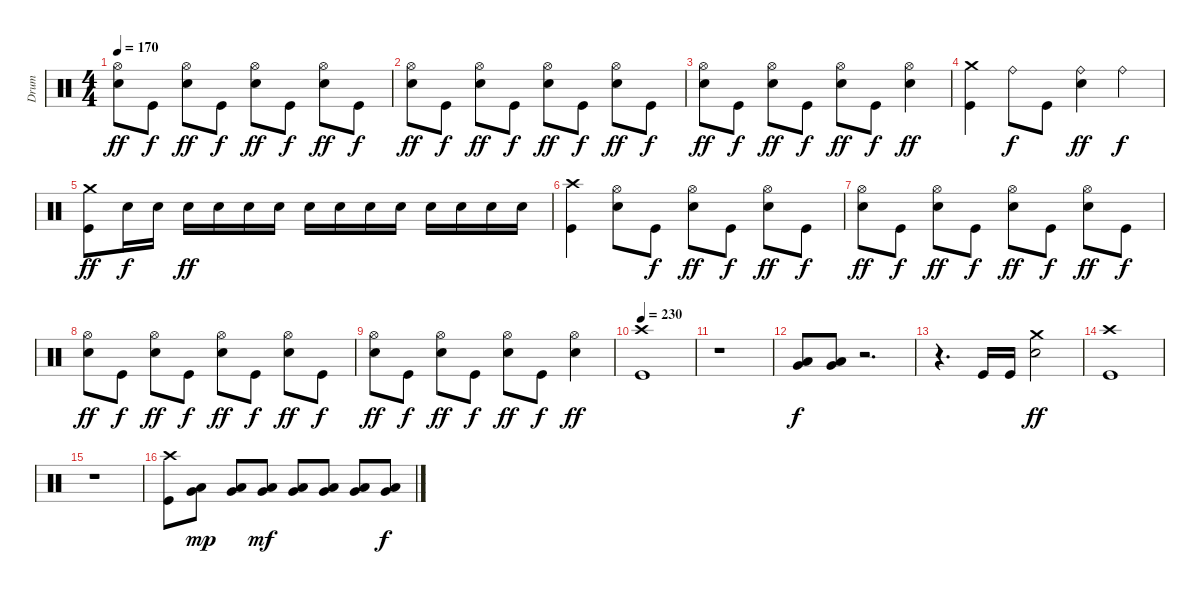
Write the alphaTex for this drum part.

\track ("Drum" "Drum") {instrument percussion}
\staff {score}
\articulation defaults
\ts (4 4)
\tempo 170
\clef neutral
\ks c
("Electric Snare (hit)" "Hi-Hat (open)").8{dy ff} "Kick (hit)".8{dy f} ("Electric Snare (hit)" "Hi-Hat (open)").8{dy ff} "Kick (hit)".8{dy f} ("Electric Snare (hit)" "Hi-Hat (open)").8{dy ff} "Kick (hit)".8{dy f} ("Electric Snare (hit)" "Hi-Hat (open)").8{dy ff} "Kick (hit)".8{dy f} |
("Electric Snare (hit)" "Hi-Hat (open)").8{dy ff} "Kick (hit)".8{dy f} ("Electric Snare (hit)" "Hi-Hat (open)").8{dy ff} "Kick (hit)".8{dy f} ("Electric Snare (hit)" "Hi-Hat (open)").8{dy ff} "Kick (hit)".8{dy f} ("Electric Snare (hit)" "Hi-Hat (open)").8{dy ff} "Kick (hit)".8{dy f} |
("Electric Snare (hit)" "Hi-Hat (open)").8{dy ff} "Kick (hit)".8{dy f} ("Electric Snare (hit)" "Hi-Hat (open)").8{dy ff} "Kick (hit)".8{dy f} ("Electric Snare (hit)" "Hi-Hat (open)").8{dy ff} "Kick (hit)".8{dy f} ("Electric Snare (hit)" "Hi-Hat (open)").4{dy ff} |
("Kick (hit)" "Crash medium (hit)").4 "Ride (bell)".8{dy f} "Kick (hit)".8 ("Electric Snare (hit)" "Ride (bell)").4{dy ff} "Ride (bell)".4{dy f} |
("Kick (hit)" "Crash medium (hit)").8{dy ff} "Electric Snare (hit)".16{dy f} "Electric Snare (hit)".16 "Electric Snare (hit)".16{dy ff} "Electric Snare (hit)".16 "Electric Snare (hit)".16 "Electric Snare (hit)".16 "Electric Snare (hit)".16 "Electric Snare (hit)".16 "Electric Snare (hit)".16 "Electric Snare (hit)".16 "Electric Snare (hit)".16 "Electric Snare (hit)".16 "Electric Snare (hit)".16 "Electric Snare (hit)".16 |
("Kick (hit)" "Crash high (hit)").4 ("Electric Snare (hit)" "Hi-Hat (open)").8 "Kick (hit)".8{dy f} ("Electric Snare (hit)" "Hi-Hat (open)").8{dy ff} "Kick (hit)".8{dy f} ("Electric Snare (hit)" "Hi-Hat (open)").8{dy ff} "Kick (hit)".8{dy f} |
("Electric Snare (hit)" "Hi-Hat (open)").8{dy ff} "Kick (hit)".8{dy f} ("Electric Snare (hit)" "Hi-Hat (open)").8{dy ff} "Kick (hit)".8{dy f} ("Electric Snare (hit)" "Hi-Hat (open)").8{dy ff} "Kick (hit)".8{dy f} ("Electric Snare (hit)" "Hi-Hat (open)").8{dy ff} "Kick (hit)".8{dy f} |
("Electric Snare (hit)" "Hi-Hat (open)").8{dy ff} "Kick (hit)".8{dy f} ("Electric Snare (hit)" "Hi-Hat (open)").8{dy ff} "Kick (hit)".8{dy f} ("Electric Snare (hit)" "Hi-Hat (open)").8{dy ff} "Kick (hit)".8{dy f} ("Electric Snare (hit)" "Hi-Hat (open)").8{dy ff} "Kick (hit)".8{dy f} |
("Electric Snare (hit)" "Hi-Hat (open)").8{dy ff} "Kick (hit)".8{dy f} ("Electric Snare (hit)" "Hi-Hat (open)").8{dy ff} "Kick (hit)".8{dy f} ("Electric Snare (hit)" "Hi-Hat (open)").8{dy ff} "Kick (hit)".8{dy f} ("Electric Snare (hit)" "Hi-Hat (open)").4{dy ff} |
\tempo 230
("Kick (hit)" "Crash high (hit)").1 |
r.1 |
("Very Low Tom (hit)" "Low Floor Tom (hit)").8{dy f} ("Very Low Tom (hit)" "Low Floor Tom (hit)").8 r.2{d} |
r.4{d} "Kick (hit)".16 "Kick (hit)".16 ("Electric Snare (hit)" "Crash medium (hit)").2{dy ff} |
("Kick (hit)" "Crash high (hit)").1 |
r.1 |
("Kick (hit)" "Crash high (hit)").8 ("Very Low Tom (hit)" "Low Floor Tom (hit)").8{dy mp} ("Very Low Tom (hit)" "Low Floor Tom (hit)").8 ("Very Low Tom (hit)" "Low Floor Tom (hit)").8{dy mf} ("Very Low Tom (hit)" "Low Floor Tom (hit)").8 ("Very Low Tom (hit)" "Low Floor Tom (hit)").8 ("Very Low Tom (hit)" "Low Floor Tom (hit)").8 ("Very Low Tom (hit)" "Low Floor Tom (hit)").8{dy f}
